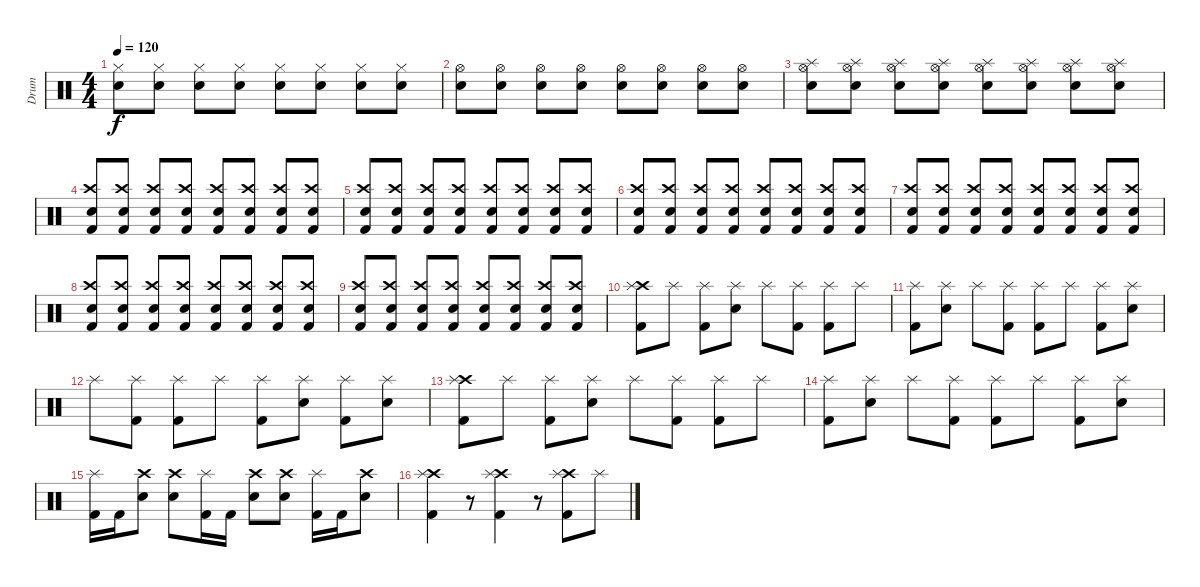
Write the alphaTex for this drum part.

\track ("Drum" "Drum") {instrument percussion}
\staff {score}
\articulation defaults
\ts (4 4)
\tempo 120
\clef neutral
\ks c
("Hi-Hat (closed)" "Snare (hit) 2").8{dy f} ("Hi-Hat (closed)" "Snare (hit) 2").8 ("Hi-Hat (closed)" "Snare (hit) 2").8 ("Hi-Hat (closed)" "Snare (hit) 2").8 ("Hi-Hat (closed)" "Snare (hit) 2").8 ("Hi-Hat (closed)" "Snare (hit) 2").8 ("Hi-Hat (closed)" "Snare (hit) 2").8 ("Hi-Hat (closed)" "Snare (hit) 2").8 |
("Hi-Hat (open)" "Snare (hit) 2").8 ("Hi-Hat (open)" "Snare (hit) 2").8 ("Hi-Hat (open)" "Snare (hit) 2").8 ("Hi-Hat (open)" "Snare (hit) 2").8 ("Hi-Hat (open)" "Snare (hit) 2").8 ("Hi-Hat (open)" "Snare (hit) 2").8 ("Hi-Hat (open)" "Snare (hit) 2").8 ("Hi-Hat (open)" "Snare (hit) 2").8 |
("Hi-Hat (open)" "Splash (hit)" "Snare (hit) 2").8 ("Hi-Hat (open)" "Splash (hit)" "Snare (hit) 2").8 ("Hi-Hat (open)" "Splash (hit)" "Snare (hit) 2").8 ("Hi-Hat (open)" "Splash (hit)" "Snare (hit) 2").8 ("Hi-Hat (open)" "Splash (hit)" "Snare (hit) 2").8 ("Hi-Hat (open)" "Splash (hit)" "Snare (hit) 2").8 ("Hi-Hat (open)" "Splash (hit)" "Snare (hit) 2").8 ("Hi-Hat (open)" "Splash (hit)" "Snare (hit) 2").8 |
("Crash high (hit)" "Snare (hit) 2" "Kick (hit) 2").8 ("Crash high (hit)" "Snare (hit) 2" "Kick (hit) 2").8 ("Crash high (hit)" "Snare (hit) 2" "Kick (hit) 2").8 ("Crash high (hit)" "Snare (hit) 2" "Kick (hit) 2").8 ("Crash high (hit)" "Snare (hit) 2" "Kick (hit) 2").8 ("Crash high (hit)" "Snare (hit) 2" "Kick (hit) 2").8 ("Crash high (hit)" "Snare (hit) 2" "Kick (hit) 2").8 ("Crash high (hit)" "Snare (hit) 2" "Kick (hit) 2").8 |
("Crash high (hit)" "Snare (hit) 2" "Kick (hit) 2").8 ("Crash high (hit)" "Snare (hit) 2" "Kick (hit) 2").8 ("Crash high (hit)" "Snare (hit) 2" "Kick (hit) 2").8 ("Crash high (hit)" "Snare (hit) 2" "Kick (hit) 2").8 ("Crash high (hit)" "Snare (hit) 2" "Kick (hit) 2").8 ("Crash high (hit)" "Snare (hit) 2" "Kick (hit) 2").8 ("Crash high (hit)" "Snare (hit) 2" "Kick (hit) 2").8 ("Crash high (hit)" "Snare (hit) 2" "Kick (hit) 2").8 |
("Crash high (hit)" "Snare (hit) 2" "Kick (hit) 2").8 ("Crash high (hit)" "Snare (hit) 2" "Kick (hit) 2").8 ("Crash high (hit)" "Snare (hit) 2" "Kick (hit) 2").8 ("Crash high (hit)" "Snare (hit) 2" "Kick (hit) 2").8 ("Crash high (hit)" "Snare (hit) 2" "Kick (hit) 2").8 ("Crash high (hit)" "Snare (hit) 2" "Kick (hit) 2").8 ("Crash high (hit)" "Snare (hit) 2" "Kick (hit) 2").8 ("Crash high (hit)" "Snare (hit) 2" "Kick (hit) 2").8 |
("Crash high (hit)" "Snare (hit) 2" "Kick (hit) 2").8 ("Crash high (hit)" "Snare (hit) 2" "Kick (hit) 2").8 ("Crash high (hit)" "Snare (hit) 2" "Kick (hit) 2").8 ("Crash high (hit)" "Snare (hit) 2" "Kick (hit) 2").8 ("Crash high (hit)" "Snare (hit) 2" "Kick (hit) 2").8 ("Crash high (hit)" "Snare (hit) 2" "Kick (hit) 2").8 ("Crash high (hit)" "Snare (hit) 2" "Kick (hit) 2").8 ("Crash high (hit)" "Snare (hit) 2" "Kick (hit) 2").8 |
("Crash high (hit)" "Snare (hit) 2" "Kick (hit) 2").8 ("Crash high (hit)" "Snare (hit) 2" "Kick (hit) 2").8 ("Crash high (hit)" "Snare (hit) 2" "Kick (hit) 2").8 ("Crash high (hit)" "Snare (hit) 2" "Kick (hit) 2").8 ("Crash high (hit)" "Snare (hit) 2" "Kick (hit) 2").8 ("Crash high (hit)" "Snare (hit) 2" "Kick (hit) 2").8 ("Crash high (hit)" "Snare (hit) 2" "Kick (hit) 2").8 ("Crash high (hit)" "Snare (hit) 2" "Kick (hit) 2").8 |
("Crash high (hit)" "Snare (hit) 2" "Kick (hit) 2").8 ("Crash high (hit)" "Snare (hit) 2" "Kick (hit) 2").8 ("Crash high (hit)" "Snare (hit) 2" "Kick (hit) 2").8 ("Crash high (hit)" "Snare (hit) 2" "Kick (hit) 2").8 ("Crash high (hit)" "Snare (hit) 2" "Kick (hit) 2").8 ("Crash high (hit)" "Snare (hit) 2" "Kick (hit) 2").8 ("Crash high (hit)" "Snare (hit) 2" "Kick (hit) 2").8 ("Crash high (hit)" "Snare (hit) 2" "Kick (hit) 2").8 |
("Crash high (hit)" "Splash (hit)" "Kick (hit) 2").8 "Splash (hit)".8 ("Splash (hit)" "Kick (hit) 2").8 ("Splash (hit)" "Snare (hit) 2").8 "Splash (hit)".8 ("Splash (hit)" "Kick (hit) 2").8 ("Splash (hit)" "Kick (hit) 2").8 "Splash (hit)".8 |
("Splash (hit)" "Kick (hit) 2").8 ("Splash (hit)" "Snare (hit) 2").8 "Splash (hit)".8 ("Splash (hit)" "Kick (hit) 2").8 ("Splash (hit)" "Kick (hit) 2").8 "Splash (hit)".8 ("Splash (hit)" "Kick (hit) 2").8 ("Splash (hit)" "Snare (hit) 2").8 |
"Splash (hit)".8 ("Splash (hit)" "Kick (hit) 2").8 ("Splash (hit)" "Kick (hit) 2").8 "Splash (hit)".8 ("Splash (hit)" "Kick (hit) 2").8 ("Splash (hit)" "Snare (hit) 2").8 ("Splash (hit)" "Kick (hit) 2").8 ("Splash (hit)" "Snare (hit) 2").8 |
("Crash high (hit)" "Splash (hit)" "Kick (hit) 2").8 "Splash (hit)".8 ("Splash (hit)" "Kick (hit) 2").8 ("Splash (hit)" "Snare (hit) 2").8 "Splash (hit)".8 ("Splash (hit)" "Kick (hit) 2").8 ("Splash (hit)" "Kick (hit) 2").8 "Splash (hit)".8 |
("Splash (hit)" "Kick (hit) 2").8 ("Splash (hit)" "Snare (hit) 2").8 "Splash (hit)".8 ("Splash (hit)" "Kick (hit) 2").8 ("Splash (hit)" "Kick (hit) 2").8 "Splash (hit)".8 ("Splash (hit)" "Kick (hit) 2").8 ("Splash (hit)" "Snare (hit) 2").8 |
("Splash (hit)" "Kick (hit) 2").16 "Kick (hit) 2".16 ("Crash high (hit)" "Snare (hit) 2").8 ("Crash high (hit)" "Snare (hit) 2").8 ("Splash (hit)" "Kick (hit) 2").16 "Kick (hit) 2".16 ("Crash high (hit)" "Snare (hit) 2").8 ("Crash high (hit)" "Snare (hit) 2").8 ("Splash (hit)" "Kick (hit) 2").16 "Kick (hit) 2".16 ("Crash high (hit)" "Snare (hit) 2").8 |
("Crash high (hit)" "Splash (hit)" "Kick (hit) 2").4 r.8 ("Crash high (hit)" "Splash (hit)" "Kick (hit) 2").4 r.8 ("Crash high (hit)" "Splash (hit)" "Kick (hit) 2").8 "Splash (hit)".8
